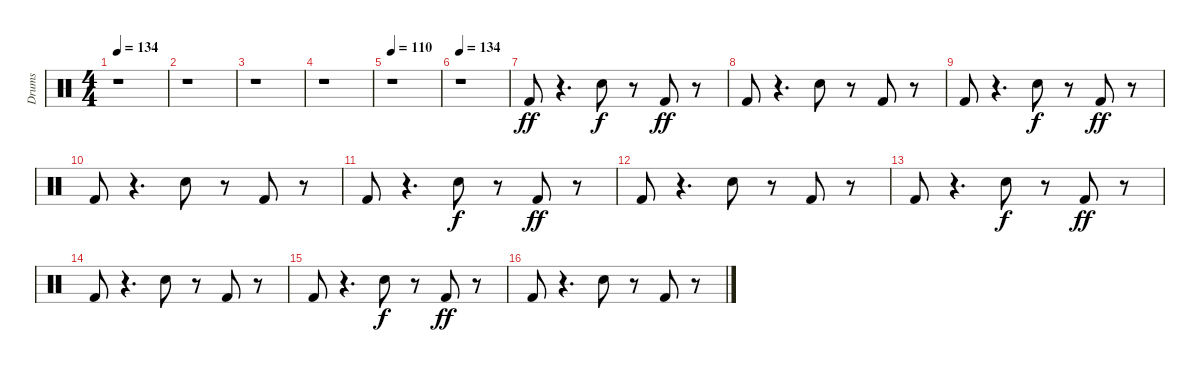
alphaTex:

\track ("Drums" "Drums") {instrument percussion}
\staff {score}
\articulation defaults
\ts (4 4)
\tempo 134
\clef neutral
\ks c
r.1{dy ff} |
r.1 |
r.1 |
r.1 |
\tempo 110
r.1 |
\tempo 134
r.1 |
"Kick (hit) 2".8 r.4{d} "Electric Snare (hit)".8{dy f} r.8 "Kick (hit) 2".8{dy ff} r.8 |
"Kick (hit) 2".8 r.4{d} "Electric Snare (hit)".8 r.8 "Kick (hit) 2".8 r.8 |
"Kick (hit) 2".8 r.4{d} "Electric Snare (hit)".8{dy f} r.8 "Kick (hit) 2".8{dy ff} r.8 |
"Kick (hit) 2".8 r.4{d} "Electric Snare (hit)".8 r.8 "Kick (hit) 2".8 r.8 |
"Kick (hit) 2".8 r.4{d} "Electric Snare (hit)".8{dy f} r.8 "Kick (hit) 2".8{dy ff} r.8 |
"Kick (hit) 2".8 r.4{d} "Electric Snare (hit)".8 r.8 "Kick (hit) 2".8 r.8 |
"Kick (hit) 2".8 r.4{d} "Electric Snare (hit)".8{dy f} r.8 "Kick (hit) 2".8{dy ff} r.8 |
"Kick (hit) 2".8 r.4{d} "Electric Snare (hit)".8 r.8 "Kick (hit) 2".8 r.8 |
"Kick (hit) 2".8 r.4{d} "Electric Snare (hit)".8{dy f} r.8 "Kick (hit) 2".8{dy ff} r.8 |
"Kick (hit) 2".8 r.4{d} "Electric Snare (hit)".8 r.8 "Kick (hit) 2".8 r.8
